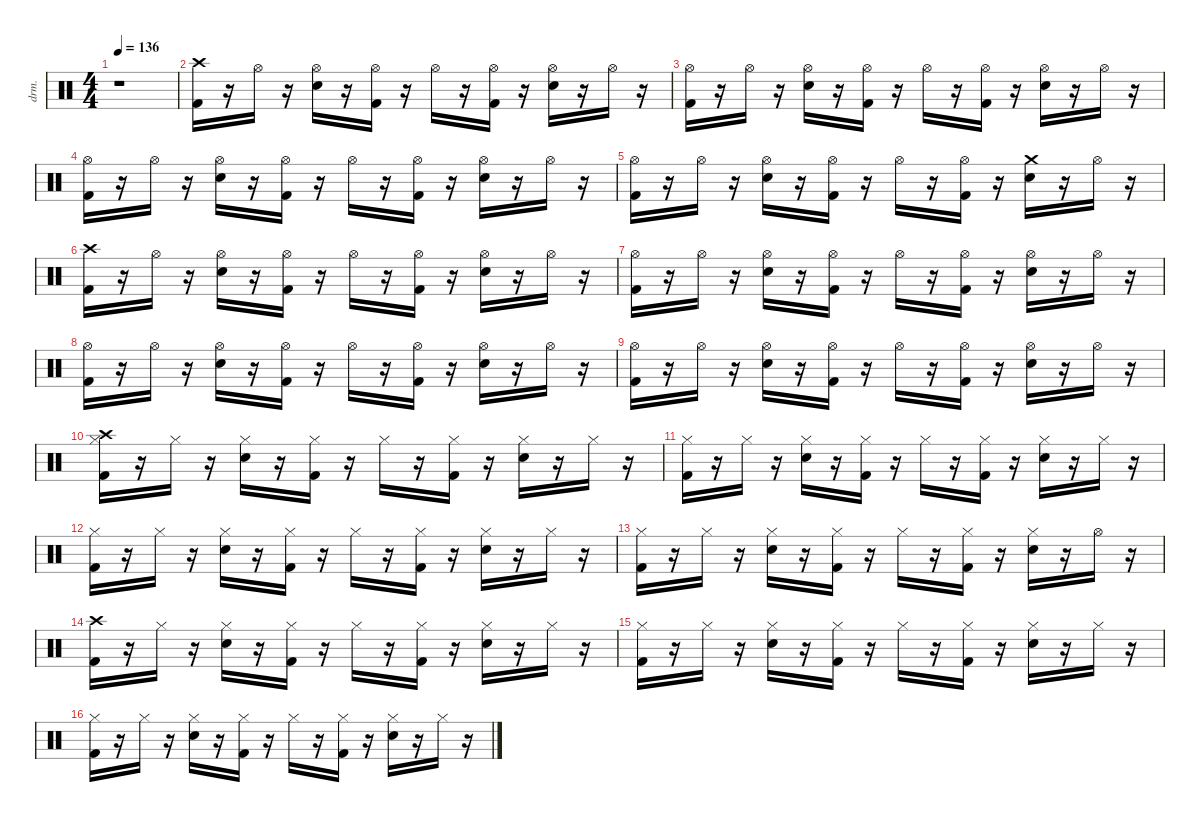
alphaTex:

\defaultSystemsLayout 4
\hideDynamics
\bracketExtendMode nobrackets
\otherSystemsTrackNameOrientation horizontal
\track ("Drums" "drm.") {instrument percussion}
\staff {score}
\articulation defaults
\ts (4 4)
\tempo 136
\clef neutral
\ks c
r.1{dy f} |
("Kick (hit) 2" "Crash high (hit)").16 r.16 "Hi-Hat (open)".16 r.16 ("Snare (hit) 2" "Hi-Hat (open)").16 r.16 ("Kick (hit) 2" "Hi-Hat (open)").16 r.16 "Hi-Hat (open)".16 r.16 ("Kick (hit) 2" "Hi-Hat (open)").16 r.16 ("Snare (hit) 2" "Hi-Hat (open)").16 r.16 "Hi-Hat (open)".16 r.16 |
("Kick (hit) 2" "Hi-Hat (open)").16 r.16 "Hi-Hat (open)".16 r.16 ("Snare (hit) 2" "Hi-Hat (open)").16 r.16 ("Kick (hit) 2" "Hi-Hat (open)").16 r.16 "Hi-Hat (open)".16 r.16 ("Kick (hit) 2" "Hi-Hat (open)").16 r.16 ("Snare (hit) 2" "Hi-Hat (open)").16 r.16 "Hi-Hat (open)".16 r.16 |
("Kick (hit) 2" "Hi-Hat (open)").16 r.16 "Hi-Hat (open)".16 r.16 ("Snare (hit) 2" "Hi-Hat (open)").16 r.16 ("Kick (hit) 2" "Hi-Hat (open)").16 r.16 "Hi-Hat (open)".16 r.16 ("Kick (hit) 2" "Hi-Hat (open)").16 r.16 ("Snare (hit) 2" "Hi-Hat (open)").16 r.16 "Hi-Hat (open)".16 r.16 |
("Kick (hit) 2" "Hi-Hat (open)").16 r.16 "Hi-Hat (open)".16 r.16 ("Snare (hit) 2" "Hi-Hat (open)").16 r.16 ("Kick (hit) 2" "Hi-Hat (open)").16 r.16 "Hi-Hat (open)".16 r.16 ("Kick (hit) 2" "Hi-Hat (open)").16 r.16 ("Snare (hit) 2" "Crash medium (hit)").16 r.16 "Hi-Hat (open)".16 r.16 |
("Kick (hit) 2" "Crash high (hit)").16 r.16 "Hi-Hat (open)".16 r.16 ("Snare (hit) 2" "Hi-Hat (open)").16 r.16 ("Kick (hit) 2" "Hi-Hat (open)").16 r.16 "Hi-Hat (open)".16 r.16 ("Kick (hit) 2" "Hi-Hat (open)").16 r.16 ("Snare (hit) 2" "Hi-Hat (open)").16 r.16 "Hi-Hat (open)".16 r.16 |
("Kick (hit) 2" "Hi-Hat (open)").16 r.16 "Hi-Hat (open)".16 r.16 ("Snare (hit) 2" "Hi-Hat (open)").16 r.16 ("Kick (hit) 2" "Hi-Hat (open)").16 r.16 "Hi-Hat (open)".16 r.16 ("Kick (hit) 2" "Hi-Hat (open)").16 r.16 ("Snare (hit) 2" "Hi-Hat (open)").16 r.16 "Hi-Hat (open)".16 r.16 |
("Kick (hit) 2" "Hi-Hat (open)").16 r.16 "Hi-Hat (open)".16 r.16 ("Snare (hit) 2" "Hi-Hat (open)").16 r.16 ("Kick (hit) 2" "Hi-Hat (open)").16 r.16 "Hi-Hat (open)".16 r.16 ("Kick (hit) 2" "Hi-Hat (open)").16 r.16 ("Snare (hit) 2" "Hi-Hat (open)").16 r.16 "Hi-Hat (open)".16 r.16 |
("Kick (hit) 2" "Hi-Hat (open)").16 r.16 "Hi-Hat (open)".16 r.16 ("Snare (hit) 2" "Hi-Hat (open)").16 r.16 ("Kick (hit) 2" "Hi-Hat (open)").16 r.16 "Hi-Hat (open)".16 r.16 ("Kick (hit) 2" "Hi-Hat (open)").16 r.16 ("Snare (hit) 2" "Hi-Hat (open)").16 r.16 "Hi-Hat (open)".16 r.16 |
("Kick (hit) 2" "Hi-Hat (closed)" "Crash high (hit)").16 r.16 "Hi-Hat (closed)".16 r.16 ("Snare (hit) 2" "Hi-Hat (closed)").16 r.16 ("Kick (hit) 2" "Hi-Hat (closed)").16 r.16 "Hi-Hat (closed)".16 r.16 ("Kick (hit) 2" "Hi-Hat (closed)").16 r.16 ("Snare (hit) 2" "Hi-Hat (closed)").16 r.16 "Hi-Hat (closed)".16 r.16 |
("Kick (hit) 2" "Hi-Hat (closed)").16 r.16 "Hi-Hat (closed)".16 r.16 ("Snare (hit) 2" "Hi-Hat (closed)").16 r.16 ("Kick (hit) 2" "Hi-Hat (closed)").16 r.16 "Hi-Hat (closed)".16 r.16 ("Kick (hit) 2" "Hi-Hat (closed)").16 r.16 ("Snare (hit) 2" "Hi-Hat (closed)").16 r.16 "Hi-Hat (closed)".16 r.16 |
("Kick (hit) 2" "Hi-Hat (closed)").16 r.16 "Hi-Hat (closed)".16 r.16 ("Snare (hit) 2" "Hi-Hat (closed)").16 r.16 ("Kick (hit) 2" "Hi-Hat (closed)").16 r.16 "Hi-Hat (closed)".16 r.16 ("Kick (hit) 2" "Hi-Hat (closed)").16 r.16 ("Snare (hit) 2" "Hi-Hat (closed)").16 r.16 "Hi-Hat (closed)".16 r.16 |
("Kick (hit) 2" "Hi-Hat (closed)").16 r.16 "Hi-Hat (closed)".16 r.16 ("Snare (hit) 2" "Hi-Hat (closed)").16 r.16 ("Kick (hit) 2" "Hi-Hat (closed)").16 r.16 "Hi-Hat (closed)".16 r.16 ("Kick (hit) 2" "Hi-Hat (closed)").16 r.16 ("Snare (hit) 2" "Hi-Hat (closed)").16 r.16 "Hi-Hat (open)".16 r.16 |
("Kick (hit) 2" "Crash high (hit)").16 r.16 "Hi-Hat (closed)".16 r.16 ("Snare (hit) 2" "Hi-Hat (closed)").16 r.16 ("Kick (hit) 2" "Hi-Hat (closed)").16 r.16 "Hi-Hat (closed)".16 r.16 ("Kick (hit) 2" "Hi-Hat (closed)").16 r.16 ("Snare (hit) 2" "Hi-Hat (closed)").16 r.16 "Hi-Hat (closed)".16 r.16 |
("Kick (hit) 2" "Hi-Hat (closed)").16 r.16 "Hi-Hat (closed)".16 r.16 ("Snare (hit) 2" "Hi-Hat (closed)").16 r.16 ("Kick (hit) 2" "Hi-Hat (closed)").16 r.16 "Hi-Hat (closed)".16 r.16 ("Kick (hit) 2" "Hi-Hat (closed)").16 r.16 ("Snare (hit) 2" "Hi-Hat (closed)").16 r.16 "Hi-Hat (closed)".16 r.16 |
("Kick (hit) 2" "Hi-Hat (closed)").16 r.16 "Hi-Hat (closed)".16 r.16 ("Snare (hit) 2" "Hi-Hat (closed)").16 r.16 ("Kick (hit) 2" "Hi-Hat (closed)").16 r.16 "Hi-Hat (closed)".16 r.16 ("Kick (hit) 2" "Hi-Hat (closed)").16 r.16 ("Snare (hit) 2" "Hi-Hat (closed)").16 r.16 "Hi-Hat (closed)".16 r.16
